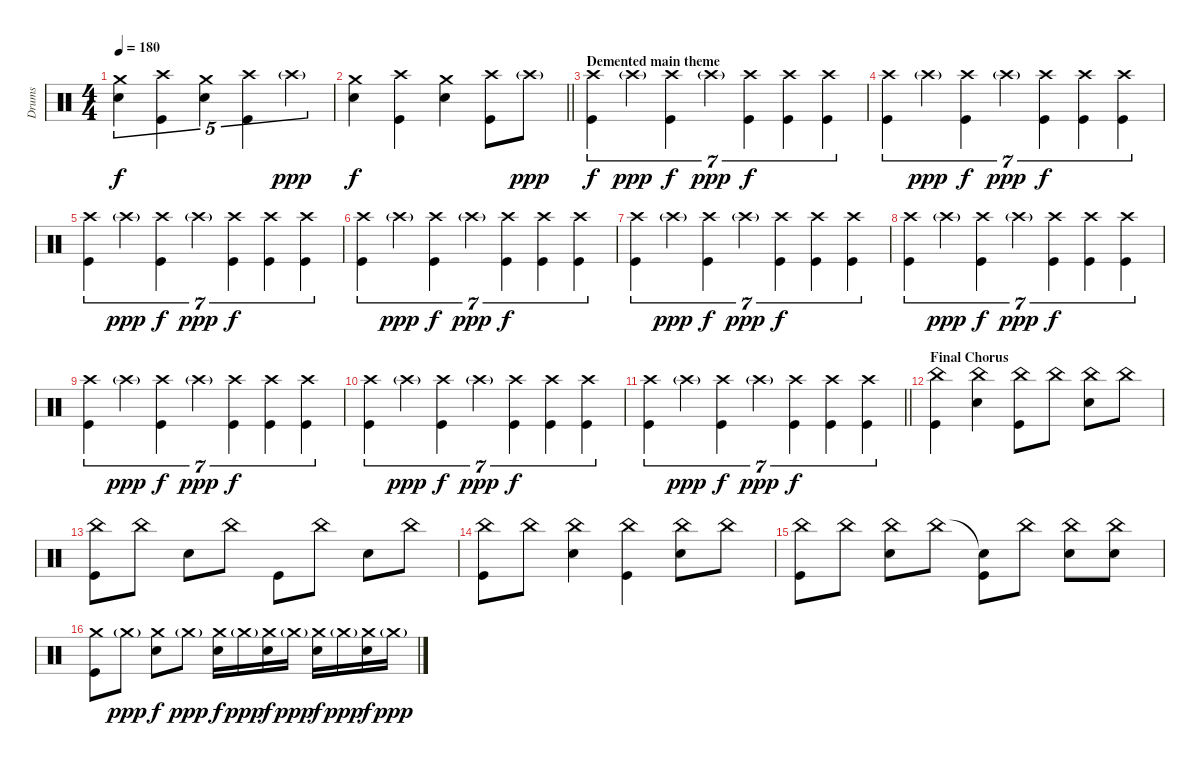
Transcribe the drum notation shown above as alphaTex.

\track ("Drums" "Drums") {instrument percussion}
\staff {score}
\articulation defaults
\ts (4 4)
\tempo 180
\clef neutral
\ks c
("Crash medium (hit)" "Electric Snare (hit)").4{tu (5 4) dy f} ("Crash high (hit)" "Kick (hit)").4{tu (5 4)} ("Crash medium (hit)" "Electric Snare (hit)").4{tu (5 4)} ("Crash high (hit)" "Kick (hit)").4{tu (5 4)} "Crash high (hit)"{g}.4{tu (5 4) dy ppp} |
\barLineRight lightlight
("Crash medium (hit)" "Electric Snare (hit)").4{dy f} ("Crash high (hit)" "Kick (hit)").4 ("Crash medium (hit)" "Electric Snare (hit)").4 ("Crash high (hit)" "Kick (hit)").8 "Crash high (hit)"{g}.8{dy ppp} |
\section ("" "Demented main theme")
("Crash high (hit)" "Kick (hit)").4{tu (7 4) dy f} "Crash high (hit)"{g}.4{tu (7 4) dy ppp} ("Crash high (hit)" "Kick (hit)").4{tu (7 4) dy f} "Crash high (hit)"{g}.4{tu (7 4) dy ppp} ("Crash high (hit)" "Kick (hit)").4{tu (7 4) dy f} ("Crash high (hit)" "Kick (hit)").4{tu (7 4)} ("Crash high (hit)" "Kick (hit)").4{tu (7 4)} |
("Crash high (hit)" "Kick (hit)").4{tu (7 4)} "Crash high (hit)"{g}.4{tu (7 4) dy ppp} ("Crash high (hit)" "Kick (hit)").4{tu (7 4) dy f} "Crash high (hit)"{g}.4{tu (7 4) dy ppp} ("Crash high (hit)" "Kick (hit)").4{tu (7 4) dy f} ("Crash high (hit)" "Kick (hit)").4{tu (7 4)} ("Crash high (hit)" "Kick (hit)").4{tu (7 4)} |
("Crash high (hit)" "Kick (hit)").4{tu (7 4)} "Crash high (hit)"{g}.4{tu (7 4) dy ppp} ("Crash high (hit)" "Kick (hit)").4{tu (7 4) dy f} "Crash high (hit)"{g}.4{tu (7 4) dy ppp} ("Crash high (hit)" "Kick (hit)").4{tu (7 4) dy f} ("Crash high (hit)" "Kick (hit)").4{tu (7 4)} ("Crash high (hit)" "Kick (hit)").4{tu (7 4)} |
("Crash high (hit)" "Kick (hit)").4{tu (7 4)} "Crash high (hit)"{g}.4{tu (7 4) dy ppp} ("Crash high (hit)" "Kick (hit)").4{tu (7 4) dy f} "Crash high (hit)"{g}.4{tu (7 4) dy ppp} ("Crash high (hit)" "Kick (hit)").4{tu (7 4) dy f} ("Crash high (hit)" "Kick (hit)").4{tu (7 4)} ("Crash high (hit)" "Kick (hit)").4{tu (7 4)} |
("Crash high (hit)" "Kick (hit)").4{tu (7 4)} "Crash high (hit)"{g}.4{tu (7 4) dy ppp} ("Crash high (hit)" "Kick (hit)").4{tu (7 4) dy f} "Crash high (hit)"{g}.4{tu (7 4) dy ppp} ("Crash high (hit)" "Kick (hit)").4{tu (7 4) dy f} ("Crash high (hit)" "Kick (hit)").4{tu (7 4)} ("Crash high (hit)" "Kick (hit)").4{tu (7 4)} |
("Crash high (hit)" "Kick (hit)").4{tu (7 4)} "Crash high (hit)"{g}.4{tu (7 4) dy ppp} ("Crash high (hit)" "Kick (hit)").4{tu (7 4) dy f} "Crash high (hit)"{g}.4{tu (7 4) dy ppp} ("Crash high (hit)" "Kick (hit)").4{tu (7 4) dy f} ("Crash high (hit)" "Kick (hit)").4{tu (7 4)} ("Crash high (hit)" "Kick (hit)").4{tu (7 4)} |
("Crash high (hit)" "Kick (hit)").4{tu (7 4)} "Crash high (hit)"{g}.4{tu (7 4) dy ppp} ("Crash high (hit)" "Kick (hit)").4{tu (7 4) dy f} "Crash high (hit)"{g}.4{tu (7 4) dy ppp} ("Crash high (hit)" "Kick (hit)").4{tu (7 4) dy f} ("Crash high (hit)" "Kick (hit)").4{tu (7 4)} ("Crash high (hit)" "Kick (hit)").4{tu (7 4)} |
("Crash high (hit)" "Kick (hit)").4{tu (7 4)} "Crash high (hit)"{g}.4{tu (7 4) dy ppp} ("Crash high (hit)" "Kick (hit)").4{tu (7 4) dy f} "Crash high (hit)"{g}.4{tu (7 4) dy ppp} ("Crash high (hit)" "Kick (hit)").4{tu (7 4) dy f} ("Crash high (hit)" "Kick (hit)").4{tu (7 4)} ("Crash high (hit)" "Kick (hit)").4{tu (7 4)} |
\barLineRight lightlight
("Crash high (hit)" "Kick (hit)").4{tu (7 4)} "Crash high (hit)"{g}.4{tu (7 4) dy ppp} ("Crash high (hit)" "Kick (hit)").4{tu (7 4) dy f} "Crash high (hit)"{g}.4{tu (7 4) dy ppp} ("Crash high (hit)" "Kick (hit)").4{tu (7 4) dy f} ("Crash high (hit)" "Kick (hit)").4{tu (7 4)} ("Crash high (hit)" "Kick (hit)").4{tu (7 4)} |
\section ("" "Final Chorus")
("China (hit)" "Kick (hit)").4 ("China (hit)" "Electric Snare (hit)").4 ("China (hit)" "Kick (hit)").8 "China (hit)".8 ("China (hit)" "Electric Snare (hit)").8 "China (hit)".8 |
("China (hit)" "Kick (hit)").8 "China (hit)".8 "Electric Snare (hit)".8 "China (hit)".8 "Kick (hit)".8 "China (hit)".8 "Electric Snare (hit)".8 "China (hit)".8 |
("China (hit)" "Kick (hit)").8 "China (hit)".8 ("China (hit)" "Electric Snare (hit)").4 ("China (hit)" "Kick (hit)").4 ("China (hit)" "Electric Snare (hit)").8 "China (hit)".8 |
("China (hit)" "Kick (hit)").8 "China (hit)".8 ("China (hit)" "Electric Snare (hit)").8 "China (hit)".8 ("Snare (hit)"{t} "Kick (hit)").8 "China (hit)".8 ("China (hit)" "Electric Snare (hit)").8 ("China (hit)" "Electric Snare (hit)").8 |
("Crash medium (hit)" "Kick (hit)").8 "Crash medium (hit)"{g}.8{dy ppp} ("Crash medium (hit)" "Electric Snare (hit)").8{dy f} "Crash medium (hit)"{g}.8{dy ppp} ("Crash medium (hit)" "Electric Snare (hit)").16{dy f} "Crash medium (hit)"{g}.16{dy ppp} ("Crash medium (hit)" "Electric Snare (hit)").16{dy f} "Crash medium (hit)"{g}.16{dy ppp} ("Crash medium (hit)" "Electric Snare (hit)").16{dy f} "Crash medium (hit)"{g}.16{dy ppp} ("Crash medium (hit)" "Electric Snare (hit)").16{dy f} "Crash medium (hit)"{g}.16{dy ppp}
